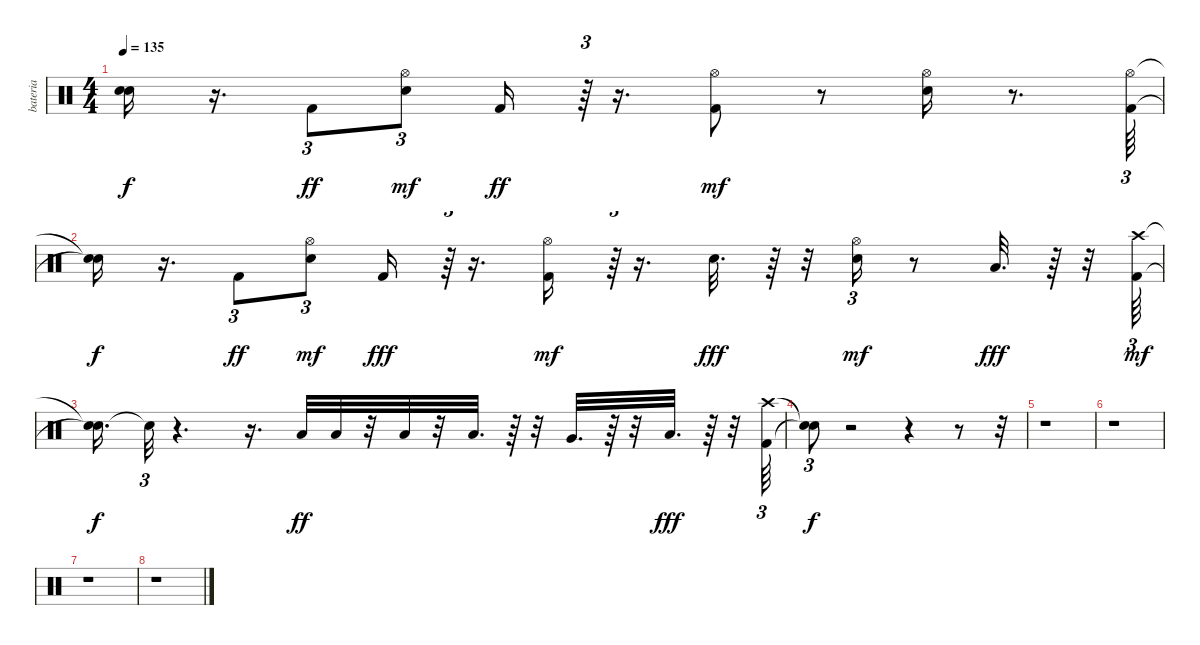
\track ("bateria" "bateria") {instrument percussion}
\staff {score}
\articulation defaults
\ts (4 4)
\tempo 135
\clef neutral
\ks c
("Snare (hit)"{t} "Snare (hit)"{t}).16{dy f} r.16{d} "Kick (hit) 2".8{tu (3 2) dy ff} ("Electric Snare (hit)" "Hi-Hat (open)").8{tu (3 2) dy mf} "Kick (hit) 2".16{dy ff} r.64{tu (3 2)} r.16{d} ("Kick (hit) 2" "Hi-Hat (open)").8{dy mf} r.8 ("Electric Snare (hit)" "Hi-Hat (open)").16 r.8{d} ("Kick (hit) 2" "Hi-Hat (open)").64{tu (3 2)} |
("Snare (hit)"{t} "Snare (hit)"{t}).16{dy f} r.16{d} "Kick (hit) 2".8{tu (3 2) dy ff} ("Electric Snare (hit)" "Hi-Hat (open)").8{tu (3 2) dy mf} "Kick (hit) 2".16{dy fff} r.64{tu (3 2)} r.16{d} ("Kick (hit) 2" "Hi-Hat (open)").16{dy mf} r.64{tu (3 2)} r.16{d} "Electric Snare (hit)".32{d dy fff} r.64 r.32 ("Electric Snare (hit)" "Hi-Hat (open)").16{tu (3 2) dy mf} r.8 "Low Tom (hit)".32{d dy fff} r.64 r.32 ("Kick (hit) 2" "Crash high (hit)").64{tu (3 2) dy mf} |
("Snare (hit)"{t} "Snare (hit)"{t}).16{d dy f} "Snare (hit)"{t}.32{tu (3 2)} r.4{d} r.16{d} "Low Tom (hit)".32{dy ff} "Low Tom (hit)".32 r.32 "Low Tom (hit)".32 r.32 "Low Tom (hit)".32{d} r.64 r.32 "Very Low Tom (hit)".32{d} r.64 r.32 "Low Floor Tom (hit)".32{d dy fff} r.64 r.32 ("Kick (hit) 2" "Crash high (hit)").64{tu (3 2)} |
("Snare (hit)"{t} "Snare (hit)"{t}).8{tu (3 2) dy f} r.2 r.4 r.8 r.32 |
r.1 |
r.1 |
r.1 |
r.1
